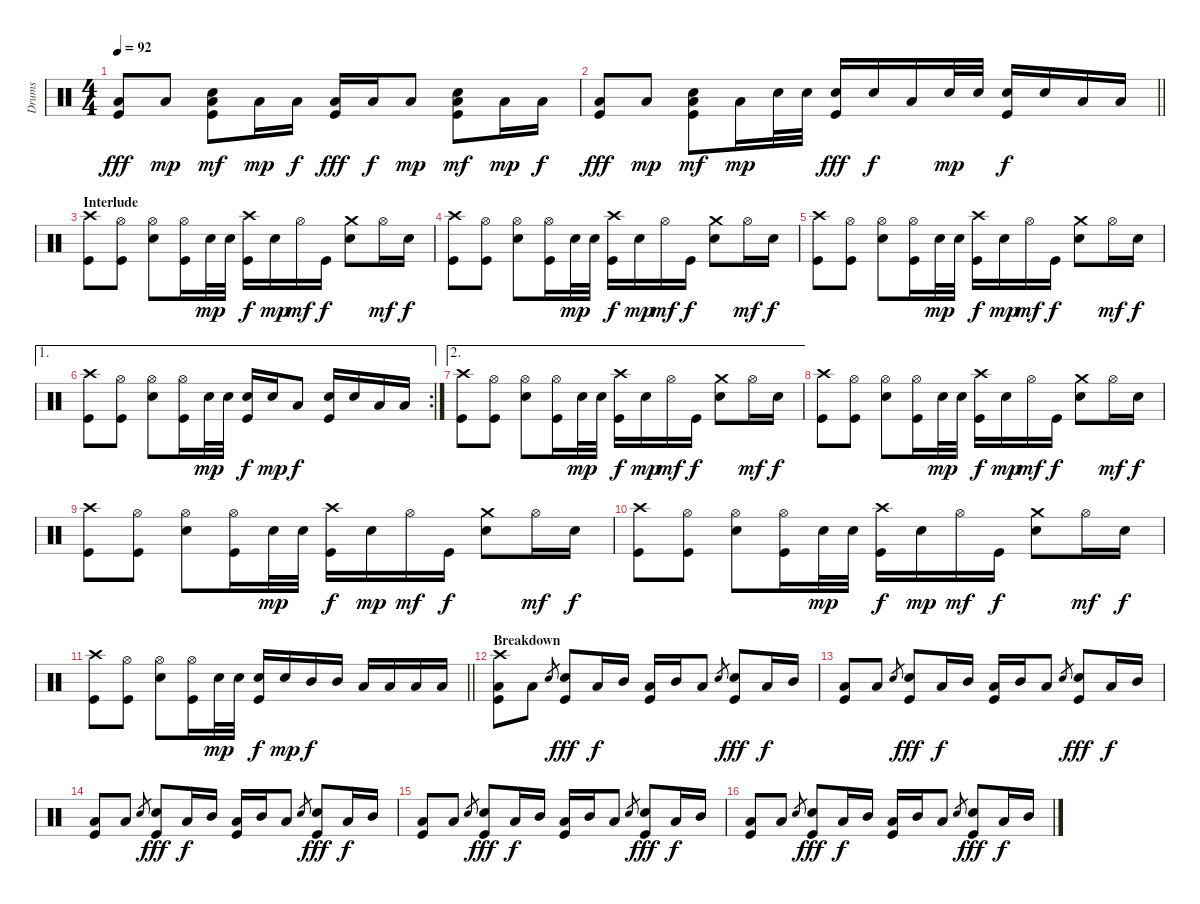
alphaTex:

\track ("Drums" "Drums") {instrument percussion}
\staff {score}
\articulation defaults
\ts (4 4)
\tempo 92
\clef neutral
\ks c
("Low Floor Tom (hit)" "Kick (hit)").8{dy fff} "Low Floor Tom (hit)".8{dy mp} ("Electric Snare (hit)" "Low Floor Tom (hit)" "Kick (hit)").8{dy mf} "Low Floor Tom (hit)".16{dy mp} "Low Tom (hit)".16{dy f} ("Low Floor Tom (hit)" "Kick (hit)").16{dy fff} "Low Tom (hit)".16{dy f} "Low Floor Tom (hit)".8{dy mp} ("Electric Snare (hit)" "Low Floor Tom (hit)" "Kick (hit)").8{dy mf} "Low Floor Tom (hit)".16{dy mp} "Low Tom (hit)".16{dy f} |
\barLineRight lightlight
("Low Floor Tom (hit)" "Kick (hit)").8{dy fff} "Low Floor Tom (hit)".8{dy mp} ("Electric Snare (hit)" "Low Floor Tom (hit)" "Kick (hit)").8{dy mf} "Low Floor Tom (hit)".16{dy mp} "Electric Snare (hit)".32 "Electric Snare (hit)".32 ("Electric Snare (hit)" "Kick (hit)").16{dy fff} "Electric Snare (hit)".16{dy f} "Low Tom (hit)".16 "Electric Snare (hit)".32{dy mp} "Electric Snare (hit)".32 ("Electric Snare (hit)" "Kick (hit)").16{dy f} "Electric Snare (hit)".16 "Low Tom (hit)".16 "Low Tom (hit)".16 |
\section ("" "Interlude")
("Crash high (hit)" "Kick (hit)").8 ("Hi-Hat (open)" "Kick (hit)").8 ("Hi-Hat (open)" "Electric Snare (hit)").8 ("Hi-Hat (open)" "Kick (hit)").16 "Electric Snare (hit)".32{dy mp} "Electric Snare (hit)".32 ("Crash high (hit)" "Kick (hit)").16{dy f} "Electric Snare (hit)".16{dy mp} "Hi-Hat (open)".16{dy mf} "Kick (hit)".16{dy f} ("Crash medium (hit)" "Electric Snare (hit)").8 "Hi-Hat (open)".16{dy mf} "Electric Snare (hit)".16{dy f} |
("Crash high (hit)" "Kick (hit)").8 ("Hi-Hat (open)" "Kick (hit)").8 ("Hi-Hat (open)" "Electric Snare (hit)").8 ("Hi-Hat (open)" "Kick (hit)").16 "Electric Snare (hit)".32{dy mp} "Electric Snare (hit)".32 ("Crash high (hit)" "Kick (hit)").16{dy f} "Electric Snare (hit)".16{dy mp} "Hi-Hat (open)".16{dy mf} "Kick (hit)".16{dy f} ("Crash medium (hit)" "Electric Snare (hit)").8 "Hi-Hat (open)".16{dy mf} "Electric Snare (hit)".16{dy f} |
("Crash high (hit)" "Kick (hit)").8 ("Hi-Hat (open)" "Kick (hit)").8 ("Hi-Hat (open)" "Electric Snare (hit)").8 ("Hi-Hat (open)" "Kick (hit)").16 "Electric Snare (hit)".32{dy mp} "Electric Snare (hit)".32 ("Crash high (hit)" "Kick (hit)").16{dy f} "Electric Snare (hit)".16{dy mp} "Hi-Hat (open)".16{dy mf} "Kick (hit)".16{dy f} ("Crash medium (hit)" "Electric Snare (hit)").8 "Hi-Hat (open)".16{dy mf} "Electric Snare (hit)".16{dy f} |
\ae 1
\rc 2
("Crash high (hit)" "Kick (hit)").8 ("Hi-Hat (open)" "Kick (hit)").8 ("Hi-Hat (open)" "Electric Snare (hit)").8 ("Hi-Hat (open)" "Kick (hit)").16 "Electric Snare (hit)".32{dy mp} "Electric Snare (hit)".32 ("Electric Snare (hit)" "Kick (hit)").16{dy f} "Electric Snare (hit)".16{dy mp} "Low Tom (hit)".8{dy f} ("Electric Snare (hit)" "Kick (hit)").16 "Electric Snare (hit)".16 "Low Floor Tom (hit)".16 "Low Floor Tom (hit)".16 |
\ae 2
("Crash high (hit)" "Kick (hit)").8 ("Hi-Hat (open)" "Kick (hit)").8 ("Hi-Hat (open)" "Electric Snare (hit)").8 ("Hi-Hat (open)" "Kick (hit)").16 "Electric Snare (hit)".32{dy mp} "Electric Snare (hit)".32 ("Crash high (hit)" "Kick (hit)").16{dy f} "Electric Snare (hit)".16{dy mp} "Hi-Hat (open)".16{dy mf} "Kick (hit)".16{dy f} ("Crash medium (hit)" "Electric Snare (hit)").8 "Hi-Hat (open)".16{dy mf} "Electric Snare (hit)".16{dy f} |
("Crash high (hit)" "Kick (hit)").8 ("Hi-Hat (open)" "Kick (hit)").8 ("Hi-Hat (open)" "Electric Snare (hit)").8 ("Hi-Hat (open)" "Kick (hit)").16 "Electric Snare (hit)".32{dy mp} "Electric Snare (hit)".32 ("Crash high (hit)" "Kick (hit)").16{dy f} "Electric Snare (hit)".16{dy mp} "Hi-Hat (open)".16{dy mf} "Kick (hit)".16{dy f} ("Crash medium (hit)" "Electric Snare (hit)").8 "Hi-Hat (open)".16{dy mf} "Electric Snare (hit)".16{dy f} |
("Crash high (hit)" "Kick (hit)").8 ("Hi-Hat (open)" "Kick (hit)").8 ("Hi-Hat (open)" "Electric Snare (hit)").8 ("Hi-Hat (open)" "Kick (hit)").16 "Electric Snare (hit)".32{dy mp} "Electric Snare (hit)".32 ("Crash high (hit)" "Kick (hit)").16{dy f} "Electric Snare (hit)".16{dy mp} "Hi-Hat (open)".16{dy mf} "Kick (hit)".16{dy f} ("Crash medium (hit)" "Electric Snare (hit)").8 "Hi-Hat (open)".16{dy mf} "Electric Snare (hit)".16{dy f} |
("Crash high (hit)" "Kick (hit)").8 ("Hi-Hat (open)" "Kick (hit)").8 ("Hi-Hat (open)" "Electric Snare (hit)").8 ("Hi-Hat (open)" "Kick (hit)").16 "Electric Snare (hit)".32{dy mp} "Electric Snare (hit)".32 ("Crash high (hit)" "Kick (hit)").16{dy f} "Electric Snare (hit)".16{dy mp} "Hi-Hat (open)".16{dy mf} "Kick (hit)".16{dy f} ("Crash medium (hit)" "Electric Snare (hit)").8 "Hi-Hat (open)".16{dy mf} "Electric Snare (hit)".16{dy f} |
\barLineRight lightlight
("Crash high (hit)" "Kick (hit)").8 ("Hi-Hat (open)" "Kick (hit)").8 ("Hi-Hat (open)" "Electric Snare (hit)").8 ("Hi-Hat (open)" "Kick (hit)").16 "Electric Snare (hit)".32{dy mp} "Electric Snare (hit)".32 ("Electric Snare (hit)" "Kick (hit)").16{dy f} "Electric Snare (hit)".16{dy mp} "Mid Tom (hit)".16{dy f} "Mid Tom (hit)".16 "Low Tom (hit)".16 "Low Tom (hit)".16 "Low Floor Tom (hit)".16 "Low Floor Tom (hit)".16 |
\section ("" "Breakdown")
("Crash high (hit)" "Low Floor Tom (hit)" "Kick (hit)").8 "Low Floor Tom (hit)".8 "Electric Snare (hit)".8{gr} ("Electric Snare (hit)" "Kick (hit)").8{dy fff} "Low Floor Tom (hit)".16{dy f} "Mid Tom (hit)".16 ("Low Floor Tom (hit)" "Kick (hit)").16 "Mid Tom (hit)".16 "Low Tom (hit)".8 "Electric Snare (hit)".8{gr} ("Electric Snare (hit)" "Kick (hit)").8{dy fff} "Low Tom (hit)".16{dy f} "Mid Tom (hit)".16 |
("Low Floor Tom (hit)" "Kick (hit)").8 "Low Floor Tom (hit)".8 "Electric Snare (hit)".8{gr} ("Electric Snare (hit)" "Kick (hit)").8{dy fff} "Low Floor Tom (hit)".16{dy f} "Mid Tom (hit)".16 ("Low Floor Tom (hit)" "Kick (hit)").16 "Mid Tom (hit)".16 "Low Tom (hit)".8 "Electric Snare (hit)".8{gr} ("Electric Snare (hit)" "Kick (hit)").8{dy fff} "Low Tom (hit)".16{dy f} "Mid Tom (hit)".16 |
("Low Floor Tom (hit)" "Kick (hit)").8 "Low Floor Tom (hit)".8 "Electric Snare (hit)".8{gr} ("Electric Snare (hit)" "Kick (hit)").8{dy fff} "Low Floor Tom (hit)".16{dy f} "Mid Tom (hit)".16 ("Low Floor Tom (hit)" "Kick (hit)").16 "Mid Tom (hit)".16 "Low Tom (hit)".8 "Electric Snare (hit)".8{gr} ("Electric Snare (hit)" "Kick (hit)").8{dy fff} "Low Tom (hit)".16{dy f} "Mid Tom (hit)".16 |
("Low Floor Tom (hit)" "Kick (hit)").8 "Low Floor Tom (hit)".8 "Electric Snare (hit)".8{gr} ("Electric Snare (hit)" "Kick (hit)").8{dy fff} "Low Floor Tom (hit)".16{dy f} "Mid Tom (hit)".16 ("Low Floor Tom (hit)" "Kick (hit)").16 "Mid Tom (hit)".16 "Low Tom (hit)".8 "Electric Snare (hit)".8{gr} ("Electric Snare (hit)" "Kick (hit)").8{dy fff} "Low Tom (hit)".16{dy f} "Mid Tom (hit)".16 |
("Low Floor Tom (hit)" "Kick (hit)").8 "Low Floor Tom (hit)".8 "Electric Snare (hit)".8{gr} ("Electric Snare (hit)" "Kick (hit)").8{dy fff} "Low Floor Tom (hit)".16{dy f} "Mid Tom (hit)".16 ("Low Floor Tom (hit)" "Kick (hit)").16 "Mid Tom (hit)".16 "Low Tom (hit)".8 "Electric Snare (hit)".8{gr} ("Electric Snare (hit)" "Kick (hit)").8{dy fff} "Low Tom (hit)".16{dy f} "Mid Tom (hit)".16
